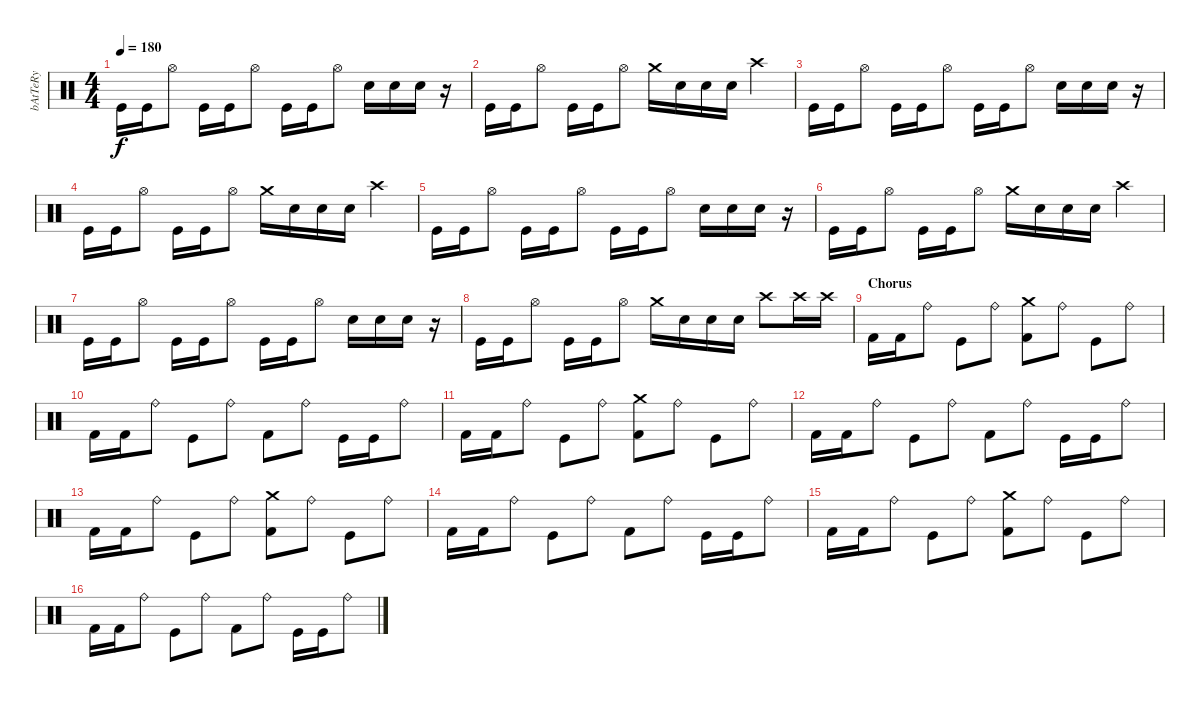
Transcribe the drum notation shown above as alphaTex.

\track ("bAtTeRy" "bAtTeRy") {instrument percussion}
\staff {score}
\articulation defaults
\ts (4 4)
\tempo 180
\clef neutral
\ks c "Kick (hit)".16{dy f} "Kick (hit)".16 "Hi-Hat (open)".8 "Kick (hit)".16 "Kick (hit)".16 "Hi-Hat (open)".8 "Kick (hit)".16 "Kick (hit)".16 "Hi-Hat (open)".8 "Electric Snare (hit)".16 "Electric Snare (hit)".16 "Electric Snare (hit)".16
r.16 |
"Kick (hit)".16 "Kick (hit)".16 "Hi-Hat (open)".8 "Kick (hit)".16 "Kick (hit)".16 "Hi-Hat (open)".8 "Crash medium (hit)".16 "Electric Snare (hit)".16 "Electric Snare (hit)".16 "Electric Snare (hit)".16 "Crash high (hit)".4 |
"Kick (hit)".16 "Kick (hit)".16 "Hi-Hat (open)".8 "Kick (hit)".16 "Kick (hit)".16 "Hi-Hat (open)".8 "Kick (hit)".16 "Kick (hit)".16 "Hi-Hat (open)".8 "Electric Snare (hit)".16 "Electric Snare (hit)".16 "Electric Snare (hit)".16 r.16 |
"Kick (hit)".16 "Kick (hit)".16 "Hi-Hat (open)".8 "Kick (hit)".16 "Kick (hit)".16 "Hi-Hat (open)".8 "Crash medium (hit)".16 "Electric Snare (hit)".16 "Electric Snare (hit)".16 "Electric Snare (hit)".16 "Crash high (hit)".4 |
"Kick (hit)".16 "Kick (hit)".16 "Hi-Hat (open)".8 "Kick (hit)".16 "Kick (hit)".16 "Hi-Hat (open)".8 "Kick (hit)".16 "Kick (hit)".16 "Hi-Hat (open)".8 "Electric Snare (hit)".16 "Electric Snare (hit)".16 "Electric Snare (hit)".16 r.16 |
"Kick (hit)".16 "Kick (hit)".16 "Hi-Hat (open)".8 "Kick (hit)".16 "Kick (hit)".16 "Hi-Hat (open)".8 "Crash medium (hit)".16 "Electric Snare (hit)".16 "Electric Snare (hit)".16 "Electric Snare (hit)".16 "Crash high (hit)".4 |
"Kick (hit)".16 "Kick (hit)".16 "Hi-Hat (open)".8 "Kick (hit)".16 "Kick (hit)".16 "Hi-Hat (open)".8 "Kick (hit)".16 "Kick (hit)".16 "Hi-Hat (open)".8 "Electric Snare (hit)".16 "Electric Snare (hit)".16 "Electric Snare (hit)".16 r.16 |
"Kick (hit)".16 "Kick (hit)".16 "Hi-Hat (open)".8 "Kick (hit)".16 "Kick (hit)".16 "Hi-Hat (open)".8 "Crash medium (hit)".16 "Electric Snare (hit)".16 "Electric Snare (hit)".16 "Electric Snare (hit)".16 "Crash high (hit)".8 "Crash high (hit)".16 "Crash high (hit)".16 |
\section ("" "Chorus")
"Kick (hit) 2".16 "Kick (hit) 2".16 "Ride (bell)".8 "Kick (hit)".8 "Ride (bell)".8 ("Crash medium (hit)" "Kick (hit) 2").8 "Ride (bell)".8 "Kick (hit)".8 "Ride (bell)".8 |
"Kick (hit) 2".16 "Kick (hit) 2".16 "Ride (bell)".8 "Kick (hit)".8 "Ride (bell)".8 "Kick (hit) 2".8 "Ride (bell)".8 "Kick (hit)".16 "Kick (hit)".16 "Ride (bell)".8 |
"Kick (hit) 2".16 "Kick (hit) 2".16 "Ride (bell)".8 "Kick (hit)".8 "Ride (bell)".8 ("Crash medium (hit)" "Kick (hit) 2").8 "Ride (bell)".8 "Kick (hit)".8 "Ride (bell)".8 |
"Kick (hit) 2".16 "Kick (hit) 2".16 "Ride (bell)".8 "Kick (hit)".8 "Ride (bell)".8 "Kick (hit) 2".8 "Ride (bell)".8 "Kick (hit)".16 "Kick (hit)".16 "Ride (bell)".8 |
"Kick (hit) 2".16 "Kick (hit) 2".16 "Ride (bell)".8 "Kick (hit)".8 "Ride (bell)".8 ("Crash medium (hit)" "Kick (hit) 2").8 "Ride (bell)".8 "Kick (hit)".8 "Ride (bell)".8 |
"Kick (hit) 2".16 "Kick (hit) 2".16 "Ride (bell)".8 "Kick (hit)".8 "Ride (bell)".8 "Kick (hit) 2".8 "Ride (bell)".8 "Kick (hit)".16 "Kick (hit)".16 "Ride (bell)".8 |
"Kick (hit) 2".16 "Kick (hit) 2".16 "Ride (bell)".8 "Kick (hit)".8 "Ride (bell)".8 ("Crash medium (hit)" "Kick (hit) 2").8 "Ride (bell)".8 "Kick (hit)".8 "Ride (bell)".8 |
"Kick (hit) 2".16 "Kick (hit) 2".16 "Ride (bell)".8 "Kick (hit)".8 "Ride (bell)".8 "Kick (hit) 2".8 "Ride (bell)".8 "Kick (hit)".16 "Kick (hit)".16 "Ride (bell)".8
